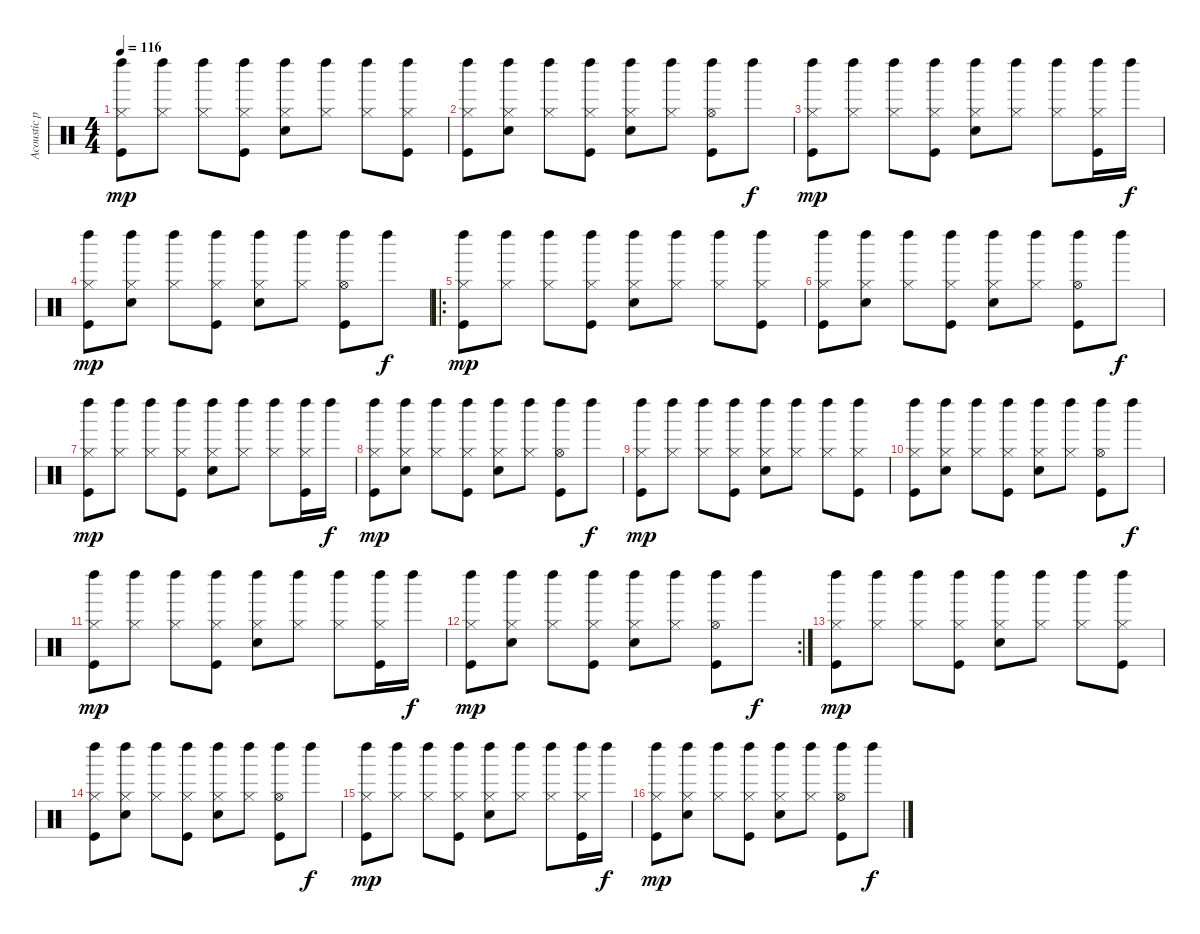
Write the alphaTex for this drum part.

\track ("Acoustic part Drums" "Acoustic p") {instrument percussion}
\staff {score}
\articulation defaults
\ts (4 4)
\tempo 116
\clef neutral
\ks c
("Kick (hit)" "Hi-Hat (closed)" "Left Maraca (hit)").8{dy mp volume 9} ("Hi-Hat (closed)" "Left Maraca (hit)").8 ("Hi-Hat (closed)" "Left Maraca (hit)").8 ("Kick (hit)" "Hi-Hat (closed)" "Left Maraca (hit)").8 ("Hi-Hat (closed)" "Electric Snare (hit)" "Left Maraca (hit)").8 ("Hi-Hat (closed)" "Left Maraca (hit)").8 ("Hi-Hat (closed)" "Left Maraca (hit)").8 ("Kick (hit)" "Hi-Hat (closed)" "Left Maraca (hit)").8 |
("Kick (hit)" "Hi-Hat (closed)" "Left Maraca (hit)").8 ("Hi-Hat (closed)" "Electric Snare (hit)" "Left Maraca (hit)").8 ("Hi-Hat (closed)" "Left Maraca (hit)").8 ("Kick (hit)" "Hi-Hat (closed)" "Left Maraca (hit)").8 ("Hi-Hat (closed)" "Electric Snare (hit)" "Left Maraca (hit)").8 ("Hi-Hat (closed)" "Left Maraca (hit)").8 ("Kick (hit)" "Hi-Hat (open)" "Left Maraca (hit)").8 "Left Maraca (hit)".8{dy f} |
("Kick (hit)" "Hi-Hat (closed)" "Left Maraca (hit)").8{dy mp} ("Hi-Hat (closed)" "Left Maraca (hit)").8 ("Hi-Hat (closed)" "Left Maraca (hit)").8 ("Kick (hit)" "Hi-Hat (closed)" "Left Maraca (hit)").8 ("Hi-Hat (closed)" "Electric Snare (hit)" "Left Maraca (hit)").8 ("Hi-Hat (closed)" "Left Maraca (hit)").8 ("Hi-Hat (closed)" "Left Maraca (hit)").8 ("Kick (hit)" "Hi-Hat (closed)" "Left Maraca (hit)").16 "Left Maraca (hit)".16{dy f} |
("Kick (hit)" "Hi-Hat (closed)" "Left Maraca (hit)").8{dy mp} ("Hi-Hat (closed)" "Electric Snare (hit)" "Left Maraca (hit)").8 ("Hi-Hat (closed)" "Left Maraca (hit)").8 ("Kick (hit)" "Hi-Hat (closed)" "Left Maraca (hit)").8 ("Hi-Hat (closed)" "Electric Snare (hit)" "Left Maraca (hit)").8 ("Hi-Hat (closed)" "Left Maraca (hit)").8 ("Kick (hit)" "Hi-Hat (open)" "Left Maraca (hit)").8 "Left Maraca (hit)".8{dy f} |
\ro
("Kick (hit)" "Hi-Hat (closed)" "Left Maraca (hit)").8{dy mp} ("Hi-Hat (closed)" "Left Maraca (hit)").8 ("Hi-Hat (closed)" "Left Maraca (hit)").8 ("Kick (hit)" "Hi-Hat (closed)" "Left Maraca (hit)").8 ("Hi-Hat (closed)" "Electric Snare (hit)" "Left Maraca (hit)").8 ("Hi-Hat (closed)" "Left Maraca (hit)").8 ("Hi-Hat (closed)" "Left Maraca (hit)").8 ("Kick (hit)" "Hi-Hat (closed)" "Left Maraca (hit)").8 |
("Kick (hit)" "Hi-Hat (closed)" "Left Maraca (hit)").8 ("Hi-Hat (closed)" "Electric Snare (hit)" "Left Maraca (hit)").8 ("Hi-Hat (closed)" "Left Maraca (hit)").8 ("Kick (hit)" "Hi-Hat (closed)" "Left Maraca (hit)").8 ("Hi-Hat (closed)" "Electric Snare (hit)" "Left Maraca (hit)").8 ("Hi-Hat (closed)" "Left Maraca (hit)").8 ("Kick (hit)" "Hi-Hat (open)" "Left Maraca (hit)").8 "Left Maraca (hit)".8{dy f} |
("Kick (hit)" "Hi-Hat (closed)" "Left Maraca (hit)").8{dy mp} ("Hi-Hat (closed)" "Left Maraca (hit)").8 ("Hi-Hat (closed)" "Left Maraca (hit)").8 ("Kick (hit)" "Hi-Hat (closed)" "Left Maraca (hit)").8 ("Hi-Hat (closed)" "Electric Snare (hit)" "Left Maraca (hit)").8 ("Hi-Hat (closed)" "Left Maraca (hit)").8 ("Hi-Hat (closed)" "Left Maraca (hit)").8 ("Kick (hit)" "Hi-Hat (closed)" "Left Maraca (hit)").16 "Left Maraca (hit)".16{dy f} |
("Kick (hit)" "Hi-Hat (closed)" "Left Maraca (hit)").8{dy mp} ("Hi-Hat (closed)" "Electric Snare (hit)" "Left Maraca (hit)").8 ("Hi-Hat (closed)" "Left Maraca (hit)").8 ("Kick (hit)" "Hi-Hat (closed)" "Left Maraca (hit)").8 ("Hi-Hat (closed)" "Electric Snare (hit)" "Left Maraca (hit)").8 ("Hi-Hat (closed)" "Left Maraca (hit)").8 ("Kick (hit)" "Hi-Hat (open)" "Left Maraca (hit)").8 "Left Maraca (hit)".8{dy f} |
("Kick (hit)" "Hi-Hat (closed)" "Left Maraca (hit)").8{dy mp} ("Hi-Hat (closed)" "Left Maraca (hit)").8 ("Hi-Hat (closed)" "Left Maraca (hit)").8 ("Kick (hit)" "Hi-Hat (closed)" "Left Maraca (hit)").8 ("Hi-Hat (closed)" "Electric Snare (hit)" "Left Maraca (hit)").8 ("Hi-Hat (closed)" "Left Maraca (hit)").8 ("Hi-Hat (closed)" "Left Maraca (hit)").8 ("Kick (hit)" "Hi-Hat (closed)" "Left Maraca (hit)").8 |
("Kick (hit)" "Hi-Hat (closed)" "Left Maraca (hit)").8 ("Hi-Hat (closed)" "Electric Snare (hit)" "Left Maraca (hit)").8 ("Hi-Hat (closed)" "Left Maraca (hit)").8 ("Kick (hit)" "Hi-Hat (closed)" "Left Maraca (hit)").8 ("Hi-Hat (closed)" "Electric Snare (hit)" "Left Maraca (hit)").8 ("Hi-Hat (closed)" "Left Maraca (hit)").8 ("Kick (hit)" "Hi-Hat (open)" "Left Maraca (hit)").8 "Left Maraca (hit)".8{dy f} |
("Kick (hit)" "Hi-Hat (closed)" "Left Maraca (hit)").8{dy mp} ("Hi-Hat (closed)" "Left Maraca (hit)").8 ("Hi-Hat (closed)" "Left Maraca (hit)").8 ("Kick (hit)" "Hi-Hat (closed)" "Left Maraca (hit)").8 ("Hi-Hat (closed)" "Electric Snare (hit)" "Left Maraca (hit)").8 ("Hi-Hat (closed)" "Left Maraca (hit)").8 ("Hi-Hat (closed)" "Left Maraca (hit)").8 ("Kick (hit)" "Hi-Hat (closed)" "Left Maraca (hit)").16 "Left Maraca (hit)".16{dy f} |
\rc 2
("Kick (hit)" "Hi-Hat (closed)" "Left Maraca (hit)").8{dy mp} ("Hi-Hat (closed)" "Electric Snare (hit)" "Left Maraca (hit)").8 ("Hi-Hat (closed)" "Left Maraca (hit)").8 ("Kick (hit)" "Hi-Hat (closed)" "Left Maraca (hit)").8 ("Hi-Hat (closed)" "Electric Snare (hit)" "Left Maraca (hit)").8 ("Hi-Hat (closed)" "Left Maraca (hit)").8 ("Kick (hit)" "Hi-Hat (open)" "Left Maraca (hit)").8 "Left Maraca (hit)".8{dy f} |
("Kick (hit)" "Hi-Hat (closed)" "Left Maraca (hit)").8{dy mp} ("Hi-Hat (closed)" "Left Maraca (hit)").8 ("Hi-Hat (closed)" "Left Maraca (hit)").8 ("Kick (hit)" "Hi-Hat (closed)" "Left Maraca (hit)").8 ("Hi-Hat (closed)" "Electric Snare (hit)" "Left Maraca (hit)").8 ("Hi-Hat (closed)" "Left Maraca (hit)").8 ("Hi-Hat (closed)" "Left Maraca (hit)").8 ("Kick (hit)" "Hi-Hat (closed)" "Left Maraca (hit)").8 |
("Kick (hit)" "Hi-Hat (closed)" "Left Maraca (hit)").8 ("Hi-Hat (closed)" "Electric Snare (hit)" "Left Maraca (hit)").8 ("Hi-Hat (closed)" "Left Maraca (hit)").8 ("Kick (hit)" "Hi-Hat (closed)" "Left Maraca (hit)").8 ("Hi-Hat (closed)" "Electric Snare (hit)" "Left Maraca (hit)").8 ("Hi-Hat (closed)" "Left Maraca (hit)").8 ("Kick (hit)" "Hi-Hat (open)" "Left Maraca (hit)").8 "Left Maraca (hit)".8{dy f} |
("Kick (hit)" "Hi-Hat (closed)" "Left Maraca (hit)").8{dy mp} ("Hi-Hat (closed)" "Left Maraca (hit)").8 ("Hi-Hat (closed)" "Left Maraca (hit)").8 ("Kick (hit)" "Hi-Hat (closed)" "Left Maraca (hit)").8 ("Hi-Hat (closed)" "Electric Snare (hit)" "Left Maraca (hit)").8 ("Hi-Hat (closed)" "Left Maraca (hit)").8 ("Hi-Hat (closed)" "Left Maraca (hit)").8 ("Kick (hit)" "Hi-Hat (closed)" "Left Maraca (hit)").16 "Left Maraca (hit)".16{dy f} |
("Kick (hit)" "Hi-Hat (closed)" "Left Maraca (hit)").8{dy mp} ("Hi-Hat (closed)" "Electric Snare (hit)" "Left Maraca (hit)").8 ("Hi-Hat (closed)" "Left Maraca (hit)").8 ("Kick (hit)" "Hi-Hat (closed)" "Left Maraca (hit)").8 ("Hi-Hat (closed)" "Electric Snare (hit)" "Left Maraca (hit)").8 ("Hi-Hat (closed)" "Left Maraca (hit)").8 ("Kick (hit)" "Hi-Hat (open)" "Left Maraca (hit)").8 "Left Maraca (hit)".8{dy f}
